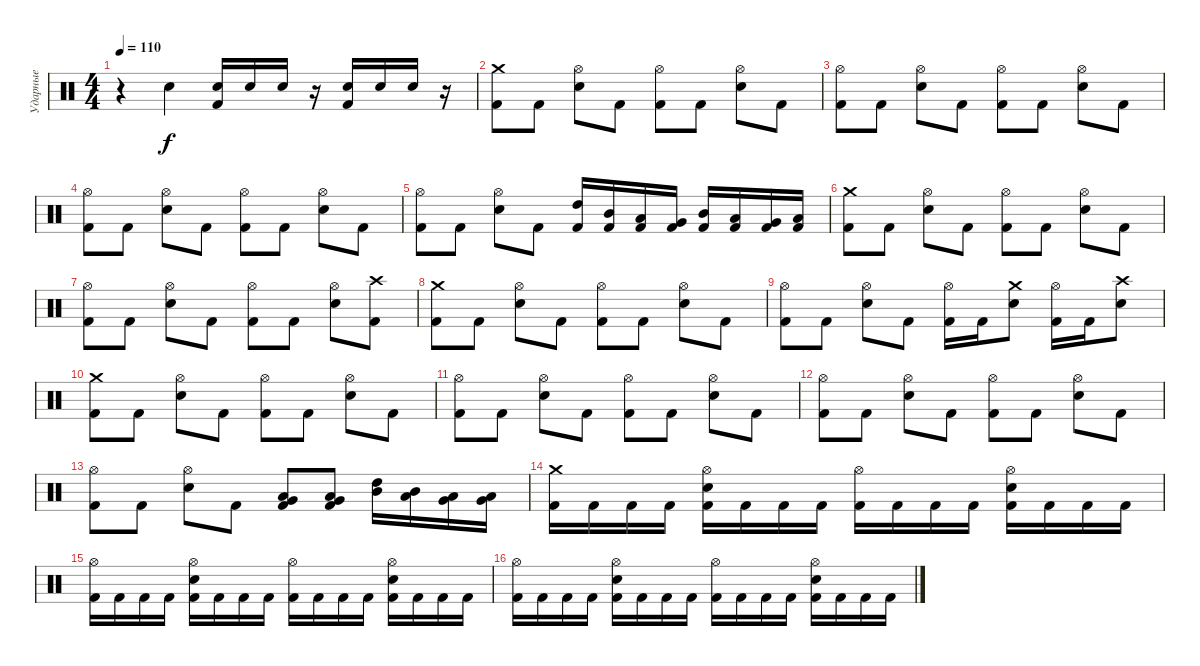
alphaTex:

\track ("Ударные" "Ударные") {instrument percussion}
\staff {score}
\articulation defaults
\ts (4 4)
\tempo 110
\clef neutral
\ks c
r.4{dy f} "Electric Snare (hit)".4 ("Electric Snare (hit)" "Kick (hit) 2").16 "Electric Snare (hit)".16 "Electric Snare (hit)".16 r.16 ("Electric Snare (hit)" "Kick (hit) 2").16 "Electric Snare (hit)".16 "Electric Snare (hit)".16 r.16 |
("Crash medium (hit)" "Kick (hit) 2").8 "Kick (hit) 2".8 ("Hi-Hat (open)" "Electric Snare (hit)").8 "Kick (hit) 2".8 ("Hi-Hat (open)" "Kick (hit) 2").8 "Kick (hit) 2".8 ("Hi-Hat (open)" "Electric Snare (hit)").8 "Kick (hit) 2".8 |
("Hi-Hat (open)" "Kick (hit) 2").8 "Kick (hit) 2".8 ("Hi-Hat (open)" "Electric Snare (hit)").8 "Kick (hit) 2".8 ("Hi-Hat (open)" "Kick (hit) 2").8 "Kick (hit) 2".8 ("Hi-Hat (open)" "Electric Snare (hit)").8 "Kick (hit) 2".8 |
("Hi-Hat (open)" "Kick (hit) 2").8 "Kick (hit) 2".8 ("Hi-Hat (open)" "Electric Snare (hit)").8 "Kick (hit) 2".8 ("Hi-Hat (open)" "Kick (hit) 2").8 "Kick (hit) 2".8 ("Hi-Hat (open)" "Electric Snare (hit)").8 "Kick (hit) 2".8 |
("Hi-Hat (open)" "Kick (hit) 2").8 "Kick (hit) 2".8 ("Hi-Hat (open)" "Electric Snare (hit)").8 "Kick (hit) 2".8 ("High Tom (hit)" "Kick (hit) 2").16 ("Mid Tom (hit)" "Kick (hit) 2").16 ("Low Tom (hit)" "Kick (hit) 2").16 ("Very Low Tom (hit)" "Kick (hit) 2").16 ("Mid Tom (hit)" "Kick (hit) 2").16 ("Low Tom (hit)" "Kick (hit) 2").16 ("Very Low Tom (hit)" "Kick (hit) 2").16 ("Low Floor Tom (hit)" "Kick (hit) 2").16 |
("Crash medium (hit)" "Kick (hit) 2").8 "Kick (hit) 2".8 ("Hi-Hat (open)" "Electric Snare (hit)").8 "Kick (hit) 2".8 ("Hi-Hat (open)" "Kick (hit) 2").8 "Kick (hit) 2".8 ("Hi-Hat (open)" "Electric Snare (hit)").8 "Kick (hit) 2".8 |
("Hi-Hat (open)" "Kick (hit) 2").8 "Kick (hit) 2".8 ("Hi-Hat (open)" "Electric Snare (hit)").8 "Kick (hit) 2".8 ("Hi-Hat (open)" "Kick (hit) 2").8 "Kick (hit) 2".8 ("Hi-Hat (open)" "Electric Snare (hit)").8 ("Crash high (hit)" "Kick (hit) 2").8 |
("Crash medium (hit)" "Kick (hit) 2").8 "Kick (hit) 2".8 ("Hi-Hat (open)" "Electric Snare (hit)").8 "Kick (hit) 2".8 ("Hi-Hat (open)" "Kick (hit) 2").8 "Kick (hit) 2".8 ("Hi-Hat (open)" "Electric Snare (hit)").8 "Kick (hit) 2".8 |
("Hi-Hat (open)" "Kick (hit) 2").8 "Kick (hit) 2".8 ("Hi-Hat (open)" "Electric Snare (hit)").8 "Kick (hit) 2".8 ("Hi-Hat (open)" "Kick (hit) 2").16 "Kick (hit) 2".16 ("Crash medium (hit)" "Electric Snare (hit)").8 ("Hi-Hat (open)" "Kick (hit) 2").16 "Kick (hit) 2".16 ("Crash high (hit)" "Electric Snare (hit)").8 |
("Crash medium (hit)" "Kick (hit) 2").8 "Kick (hit) 2".8 ("Hi-Hat (open)" "Electric Snare (hit)").8 "Kick (hit) 2".8 ("Hi-Hat (open)" "Kick (hit) 2").8 "Kick (hit) 2".8 ("Hi-Hat (open)" "Electric Snare (hit)").8 "Kick (hit) 2".8 |
("Hi-Hat (open)" "Kick (hit) 2").8 "Kick (hit) 2".8 ("Hi-Hat (open)" "Electric Snare (hit)").8 "Kick (hit) 2".8 ("Hi-Hat (open)" "Kick (hit) 2").8 "Kick (hit) 2".8 ("Hi-Hat (open)" "Electric Snare (hit)").8 "Kick (hit) 2".8 |
("Hi-Hat (open)" "Kick (hit) 2").8 "Kick (hit) 2".8 ("Hi-Hat (open)" "Electric Snare (hit)").8 "Kick (hit) 2".8 ("Hi-Hat (open)" "Kick (hit) 2").8 "Kick (hit) 2".8 ("Hi-Hat (open)" "Electric Snare (hit)").8 "Kick (hit) 2".8 |
("Hi-Hat (open)" "Kick (hit) 2").8 "Kick (hit) 2".8 ("Hi-Hat (open)" "Electric Snare (hit)").8 "Kick (hit) 2".8 ("Very Low Tom (hit)" "Low Floor Tom (hit)" "Kick (hit) 2").8 ("Very Low Tom (hit)" "Low Floor Tom (hit)" "Kick (hit) 2").8 ("High Tom (hit)" "Mid Tom (hit)").16 ("Mid Tom (hit)" "Low Tom (hit)").16 ("Low Tom (hit)" "Very Low Tom (hit)").16 ("Very Low Tom (hit)" "Low Floor Tom (hit)").16 |
("Crash medium (hit)" "Kick (hit) 2").16 "Kick (hit) 2".16 "Kick (hit) 2".16 "Kick (hit) 2".16 ("Hi-Hat (open)" "Electric Snare (hit)" "Kick (hit) 2").16 "Kick (hit) 2".16 "Kick (hit) 2".16 "Kick (hit) 2".16 ("Hi-Hat (open)" "Kick (hit) 2").16 "Kick (hit) 2".16 "Kick (hit) 2".16 "Kick (hit) 2".16 ("Hi-Hat (open)" "Electric Snare (hit)" "Kick (hit) 2").16 "Kick (hit) 2".16 "Kick (hit) 2".16 "Kick (hit) 2".16 |
("Hi-Hat (open)" "Kick (hit) 2").16 "Kick (hit) 2".16 "Kick (hit) 2".16 "Kick (hit) 2".16 ("Hi-Hat (open)" "Electric Snare (hit)" "Kick (hit) 2").16 "Kick (hit) 2".16 "Kick (hit) 2".16 "Kick (hit) 2".16 ("Hi-Hat (open)" "Kick (hit) 2").16 "Kick (hit) 2".16 "Kick (hit) 2".16 "Kick (hit) 2".16 ("Hi-Hat (open)" "Electric Snare (hit)" "Kick (hit) 2").16 "Kick (hit) 2".16 "Kick (hit) 2".16 "Kick (hit) 2".16 |
("Hi-Hat (open)" "Kick (hit) 2").16 "Kick (hit) 2".16 "Kick (hit) 2".16 "Kick (hit) 2".16 ("Hi-Hat (open)" "Electric Snare (hit)" "Kick (hit) 2").16 "Kick (hit) 2".16 "Kick (hit) 2".16 "Kick (hit) 2".16 ("Hi-Hat (open)" "Kick (hit) 2").16 "Kick (hit) 2".16 "Kick (hit) 2".16 "Kick (hit) 2".16 ("Hi-Hat (open)" "Electric Snare (hit)" "Kick (hit) 2").16 "Kick (hit) 2".16 "Kick (hit) 2".16 "Kick (hit) 2".16
